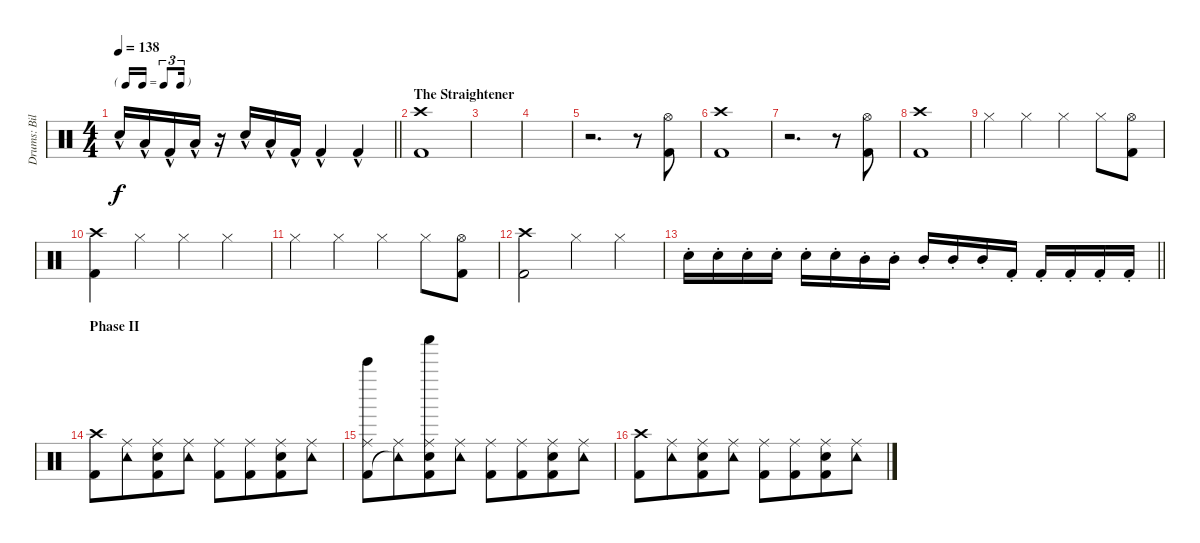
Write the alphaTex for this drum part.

\track ("Drums: Bill" "Drums: Bil") {instrument percussion}
\staff {score}
\articulation defaults
\ts (4 4)
\tf triplet16th
\tempo 138
\clef neutral
\barLineRight lightlight
\ks c "Electric Snare (hit)"{hac}.16{dy f} "Low Tom (hit)"{hac}.16 "Kick (hit) 2"{hac}.16 "Low Tom (hit)"{hac}.16
r.16 "Electric Snare (hit)"{hac}.16 "Low Tom (hit)"{hac}.16 "Kick (hit) 2"{hac}.16 "Kick (hit) 2"{hac}.4 "Kick (hit) 2"{hac}.4 |
\section ("" "The Straightener")
("Crash high (hit)" "Kick (hit) 2").1 |
|
|
r.2{d} r.8 ("Hi-Hat (open)" "Kick (hit) 2").8 |
("Crash high (hit)" "Kick (hit) 2").1 |
r.2{d} r.8 ("Hi-Hat (open)" "Kick (hit) 2").8 |
("Crash high (hit)" "Kick (hit) 2").1 |
"Hi-Hat (closed)".4 "Hi-Hat (closed)".4 "Hi-Hat (closed)".4 "Hi-Hat (closed)".8 ("Hi-Hat (open)" "Kick (hit) 2").8 |
("Crash high (hit)" "Kick (hit) 2").4 "Hi-Hat (closed)".4 "Hi-Hat (closed)".4 "Hi-Hat (closed)".4 |
"Hi-Hat (closed)".4 "Hi-Hat (closed)".4 "Hi-Hat (closed)".4 "Hi-Hat (closed)".8 ("Hi-Hat (open)" "Kick (hit) 2").8 |
("Crash high (hit)" "Kick (hit) 2").2 "Hi-Hat (closed)".4 "Hi-Hat (closed)".4 |
\barLineRight lightlight "Electric Snare (hit)"{st}.16 "Electric Snare (hit)"{st}.16 "Electric Snare (hit)"{st}.16 "Electric Snare (hit)"{st}.16 "Electric Snare (hit)"{st}.16 "Electric Snare (hit)"{st}.16 "Mid Tom (hit)"{st}.16 "Mid Tom (hit)"{st}.16 "Mid Tom (hit)"{st}.16 "Mid Tom (hit)"{st}.16 "Mid Tom (hit)"{st}.16 "Kick (hit) 2"{st}.16 "Kick (hit) 2"{st}.16 "Kick (hit) 2"{st}.16 "Kick (hit) 2"{st}.16 "Kick (hit) 2"{st}.16
|
\section ("" "Phase II")
("Crash high (hit)" "Kick (hit) 2").8 ("Ride (middle)" "Tambourine (hit)").8{beam merge} ("Ride (middle)" "Electric Snare (hit)" "Kick (hit) 2").8 ("Ride (middle)" "Tambourine (hit)").8 ("Ride (middle)" "Kick (hit) 2").8 ("Ride (middle)" "Kick (hit) 2").8{beam merge} ("Ride (middle)" "Electric Snare (hit)" "Kick (hit) 2").8 ("Ride (middle)" "Tambourine (hit)").8 |
("Ride (middle)" "Kick (hit) 2" "Bell Tree (hit)").8 ("Ride (middle)" "Tambourine (hit)"{t}).8{beam merge} ("Ride (middle)" "Electric Snare (hit)" "Kick (hit) 2" "Shaker (hit)").8 ("Ride (middle)" "Tambourine (hit)").8 ("Ride (middle)" "Kick (hit) 2").8 ("Ride (middle)" "Kick (hit) 2").8{beam merge} ("Ride (middle)" "Electric Snare (hit)" "Kick (hit) 2").8 ("Ride (middle)" "Tambourine (hit)").8 |
("Crash high (hit)" "Kick (hit) 2").8 ("Ride (middle)" "Tambourine (hit)").8{beam merge} ("Ride (middle)" "Electric Snare (hit)" "Kick (hit) 2").8 ("Ride (middle)" "Tambourine (hit)").8 ("Ride (middle)" "Kick (hit) 2").8 ("Ride (middle)" "Kick (hit) 2").8{beam merge} ("Ride (middle)" "Electric Snare (hit)" "Kick (hit) 2").8 ("Ride (middle)" "Tambourine (hit)").8
